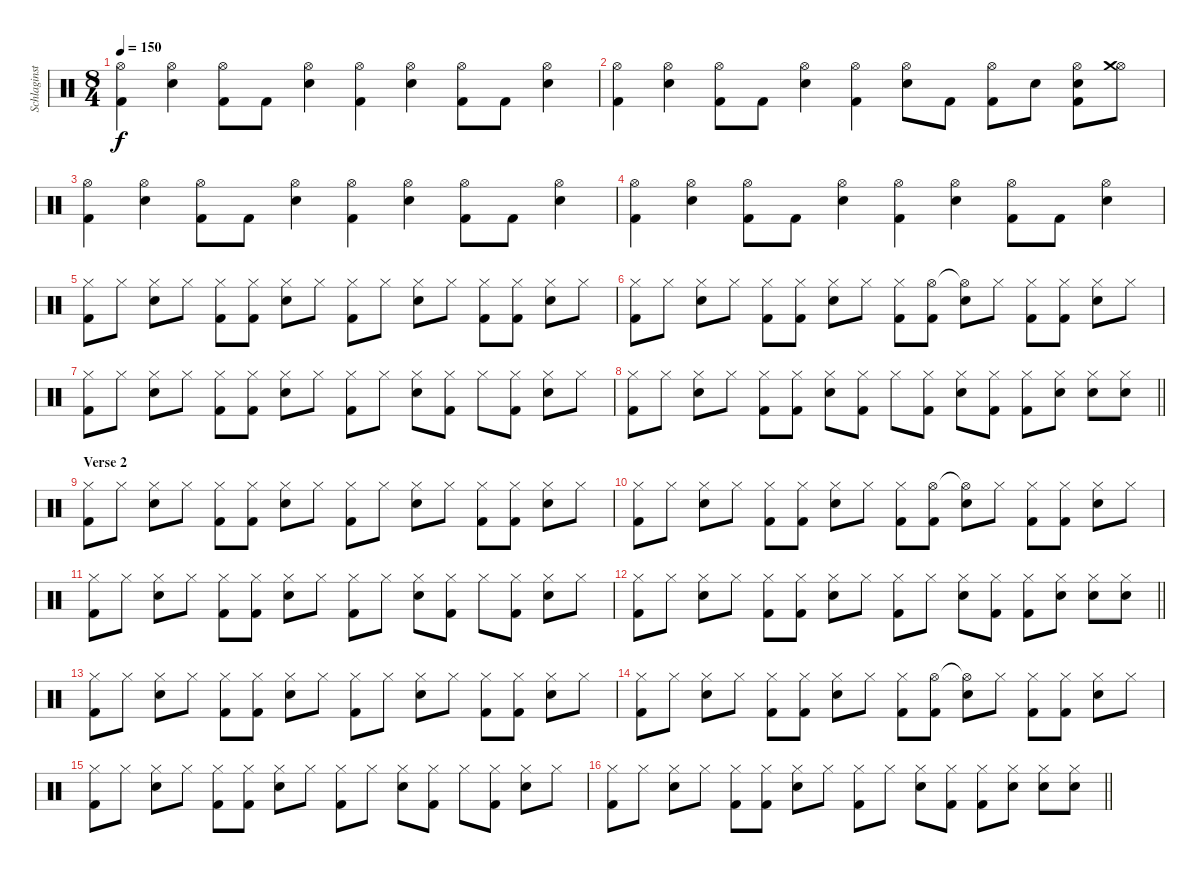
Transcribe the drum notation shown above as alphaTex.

\track ("Schlaginstrumente - Auswahl" "Schlaginst") {instrument percussion}
\staff {score}
\articulation defaults
\ts (8 4)
\tempo 150
\clef neutral
\ks c
("Hi-Hat (open)" "Kick (hit) 2").4{dy f} ("Hi-Hat (open)" "Electric Snare (hit)").4 ("Hi-Hat (open)" "Kick (hit) 2").8 "Kick (hit) 2".8 ("Hi-Hat (open)" "Electric Snare (hit)").4 ("Hi-Hat (open)" "Kick (hit) 2").4 ("Hi-Hat (open)" "Electric Snare (hit)").4 ("Hi-Hat (open)" "Kick (hit) 2").8 "Kick (hit) 2".8 ("Hi-Hat (open)" "Electric Snare (hit)").4 |
("Hi-Hat (open)" "Kick (hit) 2").4 ("Hi-Hat (open)" "Electric Snare (hit)").4 ("Hi-Hat (open)" "Kick (hit) 2").8 "Kick (hit) 2".8 ("Hi-Hat (open)" "Electric Snare (hit)").4 ("Hi-Hat (open)" "Kick (hit) 2").4 ("Hi-Hat (open)" "Electric Snare (hit)").8 "Kick (hit) 2".8 ("Hi-Hat (open)" "Kick (hit) 2").8 "Electric Snare (hit)".8 ("Hi-Hat (open)" "Electric Snare (hit)" "Kick (hit) 2").8 ("Hi-Hat (open)" "Crash medium (hit)").8 |
("Hi-Hat (open)" "Kick (hit) 2").4 ("Hi-Hat (open)" "Electric Snare (hit)").4 ("Hi-Hat (open)" "Kick (hit) 2").8 "Kick (hit) 2".8 ("Hi-Hat (open)" "Electric Snare (hit)").4 ("Hi-Hat (open)" "Kick (hit) 2").4 ("Hi-Hat (open)" "Electric Snare (hit)").4 ("Hi-Hat (open)" "Kick (hit) 2").8 "Kick (hit) 2".8 ("Hi-Hat (open)" "Electric Snare (hit)").4 |
("Hi-Hat (open)" "Kick (hit) 2").4 ("Hi-Hat (open)" "Electric Snare (hit)").4 ("Hi-Hat (open)" "Kick (hit) 2").8 "Kick (hit) 2".8 ("Hi-Hat (open)" "Electric Snare (hit)").4 ("Hi-Hat (open)" "Kick (hit) 2").4 ("Hi-Hat (open)" "Electric Snare (hit)").4 ("Hi-Hat (open)" "Kick (hit) 2").8 "Kick (hit) 2".8 ("Hi-Hat (open)" "Electric Snare (hit)").4 |
("Hi-Hat (closed)" "Kick (hit) 2").8 "Hi-Hat (closed)".8 ("Hi-Hat (closed)" "Electric Snare (hit)").8 "Hi-Hat (closed)".8 ("Hi-Hat (closed)" "Kick (hit) 2").8 ("Hi-Hat (closed)" "Kick (hit) 2").8 ("Hi-Hat (closed)" "Electric Snare (hit)").8 "Hi-Hat (closed)".8 ("Hi-Hat (closed)" "Kick (hit) 2").8 "Hi-Hat (closed)".8 ("Hi-Hat (closed)" "Electric Snare (hit)").8 "Hi-Hat (closed)".8 ("Hi-Hat (closed)" "Kick (hit) 2").8 ("Hi-Hat (closed)" "Kick (hit) 2").8 ("Hi-Hat (closed)" "Electric Snare (hit)").8 "Hi-Hat (closed)".8 |
("Hi-Hat (closed)" "Kick (hit) 2").8 "Hi-Hat (closed)".8 ("Hi-Hat (closed)" "Electric Snare (hit)").8 "Hi-Hat (closed)".8 ("Hi-Hat (closed)" "Kick (hit) 2").8 ("Hi-Hat (closed)" "Kick (hit) 2").8 ("Hi-Hat (closed)" "Electric Snare (hit)").8 "Hi-Hat (closed)".8 ("Hi-Hat (closed)" "Kick (hit) 2").8 ("Hi-Hat (open)" "Kick (hit) 2").8 ("Hi-Hat (open)"{t} "Electric Snare (hit)").8 "Hi-Hat (closed)".8 ("Hi-Hat (closed)" "Kick (hit) 2").8 ("Hi-Hat (closed)" "Kick (hit) 2").8 ("Hi-Hat (closed)" "Electric Snare (hit)").8 "Hi-Hat (closed)".8 |
("Hi-Hat (closed)" "Kick (hit) 2").8 "Hi-Hat (closed)".8 ("Hi-Hat (closed)" "Electric Snare (hit)").8 "Hi-Hat (closed)".8 ("Hi-Hat (closed)" "Kick (hit) 2").8 ("Hi-Hat (closed)" "Kick (hit) 2").8 ("Hi-Hat (closed)" "Electric Snare (hit)").8 "Hi-Hat (closed)".8 ("Hi-Hat (closed)" "Kick (hit) 2").8 "Hi-Hat (closed)".8 ("Hi-Hat (closed)" "Electric Snare (hit)").8 ("Hi-Hat (closed)" "Kick (hit) 2").8 "Hi-Hat (closed)".8 ("Hi-Hat (closed)" "Kick (hit) 2").8 ("Hi-Hat (closed)" "Electric Snare (hit)").8 "Hi-Hat (closed)".8 |
\barLineRight lightlight
("Hi-Hat (closed)" "Kick (hit) 2").8 "Hi-Hat (closed)".8 ("Hi-Hat (closed)" "Electric Snare (hit)").8 "Hi-Hat (closed)".8 ("Hi-Hat (closed)" "Kick (hit) 2").8 ("Hi-Hat (closed)" "Kick (hit) 2").8 ("Hi-Hat (closed)" "Electric Snare (hit)").8 ("Hi-Hat (closed)" "Kick (hit) 2").8 "Hi-Hat (closed)".8 ("Hi-Hat (closed)" "Kick (hit) 2").8 ("Hi-Hat (closed)" "Electric Snare (hit)").8 ("Hi-Hat (closed)" "Kick (hit) 2").8 ("Hi-Hat (closed)" "Kick (hit) 2").8 ("Hi-Hat (closed)" "Electric Snare (hit)").8 ("Hi-Hat (closed)" "Electric Snare (hit)").8 ("Hi-Hat (closed)" "Electric Snare (hit)").8 |
\section ("" "Verse 2")
("Hi-Hat (closed)" "Kick (hit) 2").8 "Hi-Hat (closed)".8 ("Hi-Hat (closed)" "Electric Snare (hit)").8 "Hi-Hat (closed)".8 ("Hi-Hat (closed)" "Kick (hit) 2").8 ("Hi-Hat (closed)" "Kick (hit) 2").8 ("Hi-Hat (closed)" "Electric Snare (hit)").8 "Hi-Hat (closed)".8 ("Hi-Hat (closed)" "Kick (hit) 2").8 "Hi-Hat (closed)".8 ("Hi-Hat (closed)" "Electric Snare (hit)").8 "Hi-Hat (closed)".8 ("Hi-Hat (closed)" "Kick (hit) 2").8 ("Hi-Hat (closed)" "Kick (hit) 2").8 ("Hi-Hat (closed)" "Electric Snare (hit)").8 "Hi-Hat (closed)".8 |
("Hi-Hat (closed)" "Kick (hit) 2").8 "Hi-Hat (closed)".8 ("Hi-Hat (closed)" "Electric Snare (hit)").8 "Hi-Hat (closed)".8 ("Hi-Hat (closed)" "Kick (hit) 2").8 ("Hi-Hat (closed)" "Kick (hit) 2").8 ("Hi-Hat (closed)" "Electric Snare (hit)").8 "Hi-Hat (closed)".8 ("Hi-Hat (closed)" "Kick (hit) 2").8 ("Hi-Hat (open)" "Kick (hit) 2").8 ("Hi-Hat (open)"{t} "Electric Snare (hit)").8 "Hi-Hat (closed)".8 ("Hi-Hat (closed)" "Kick (hit) 2").8 ("Hi-Hat (closed)" "Kick (hit) 2").8 ("Hi-Hat (closed)" "Electric Snare (hit)").8 "Hi-Hat (closed)".8 |
("Hi-Hat (closed)" "Kick (hit) 2").8 "Hi-Hat (closed)".8 ("Hi-Hat (closed)" "Electric Snare (hit)").8 "Hi-Hat (closed)".8 ("Hi-Hat (closed)" "Kick (hit) 2").8 ("Hi-Hat (closed)" "Kick (hit) 2").8 ("Hi-Hat (closed)" "Electric Snare (hit)").8 "Hi-Hat (closed)".8 ("Hi-Hat (closed)" "Kick (hit) 2").8 "Hi-Hat (closed)".8 ("Hi-Hat (closed)" "Electric Snare (hit)").8 ("Hi-Hat (closed)" "Kick (hit) 2").8 "Hi-Hat (closed)".8 ("Hi-Hat (closed)" "Kick (hit) 2").8 ("Hi-Hat (closed)" "Electric Snare (hit)").8 "Hi-Hat (closed)".8 |
\barLineRight lightlight
("Hi-Hat (closed)" "Kick (hit) 2").8 "Hi-Hat (closed)".8 ("Hi-Hat (closed)" "Electric Snare (hit)").8 "Hi-Hat (closed)".8 ("Hi-Hat (closed)" "Kick (hit) 2").8 ("Hi-Hat (closed)" "Kick (hit) 2").8 ("Hi-Hat (closed)" "Electric Snare (hit)").8 "Hi-Hat (closed)".8 ("Hi-Hat (closed)" "Kick (hit) 2").8 "Hi-Hat (closed)".8 ("Hi-Hat (closed)" "Electric Snare (hit)").8 ("Hi-Hat (closed)" "Kick (hit) 2").8 ("Hi-Hat (closed)" "Kick (hit) 2").8 ("Hi-Hat (closed)" "Electric Snare (hit)").8 ("Hi-Hat (closed)" "Electric Snare (hit)").8 ("Hi-Hat (closed)" "Electric Snare (hit)").8 |
("Hi-Hat (closed)" "Kick (hit) 2").8 "Hi-Hat (closed)".8 ("Hi-Hat (closed)" "Electric Snare (hit)").8 "Hi-Hat (closed)".8 ("Hi-Hat (closed)" "Kick (hit) 2").8 ("Hi-Hat (closed)" "Kick (hit) 2").8 ("Hi-Hat (closed)" "Electric Snare (hit)").8 "Hi-Hat (closed)".8 ("Hi-Hat (closed)" "Kick (hit) 2").8 "Hi-Hat (closed)".8 ("Hi-Hat (closed)" "Electric Snare (hit)").8 "Hi-Hat (closed)".8 ("Hi-Hat (closed)" "Kick (hit) 2").8 ("Hi-Hat (closed)" "Kick (hit) 2").8 ("Hi-Hat (closed)" "Electric Snare (hit)").8 "Hi-Hat (closed)".8 |
("Hi-Hat (closed)" "Kick (hit) 2").8 "Hi-Hat (closed)".8 ("Hi-Hat (closed)" "Electric Snare (hit)").8 "Hi-Hat (closed)".8 ("Hi-Hat (closed)" "Kick (hit) 2").8 ("Hi-Hat (closed)" "Kick (hit) 2").8 ("Hi-Hat (closed)" "Electric Snare (hit)").8 "Hi-Hat (closed)".8 ("Hi-Hat (closed)" "Kick (hit) 2").8 ("Hi-Hat (open)" "Kick (hit) 2").8 ("Hi-Hat (open)"{t} "Electric Snare (hit)").8 "Hi-Hat (closed)".8 ("Hi-Hat (closed)" "Kick (hit) 2").8 ("Hi-Hat (closed)" "Kick (hit) 2").8 ("Hi-Hat (closed)" "Electric Snare (hit)").8 "Hi-Hat (closed)".8 |
("Hi-Hat (closed)" "Kick (hit) 2").8 "Hi-Hat (closed)".8 ("Hi-Hat (closed)" "Electric Snare (hit)").8 "Hi-Hat (closed)".8 ("Hi-Hat (closed)" "Kick (hit) 2").8 ("Hi-Hat (closed)" "Kick (hit) 2").8 ("Hi-Hat (closed)" "Electric Snare (hit)").8 "Hi-Hat (closed)".8 ("Hi-Hat (closed)" "Kick (hit) 2").8 "Hi-Hat (closed)".8 ("Hi-Hat (closed)" "Electric Snare (hit)").8 ("Hi-Hat (closed)" "Kick (hit) 2").8 "Hi-Hat (closed)".8 ("Hi-Hat (closed)" "Kick (hit) 2").8 ("Hi-Hat (closed)" "Electric Snare (hit)").8 "Hi-Hat (closed)".8 |
\barLineRight lightlight
("Hi-Hat (closed)" "Kick (hit) 2").8 "Hi-Hat (closed)".8 ("Hi-Hat (closed)" "Electric Snare (hit)").8 "Hi-Hat (closed)".8 ("Hi-Hat (closed)" "Kick (hit) 2").8 ("Hi-Hat (closed)" "Kick (hit) 2").8 ("Hi-Hat (closed)" "Electric Snare (hit)").8 "Hi-Hat (closed)".8 ("Hi-Hat (closed)" "Kick (hit) 2").8 "Hi-Hat (closed)".8 ("Hi-Hat (closed)" "Electric Snare (hit)").8 ("Hi-Hat (closed)" "Kick (hit) 2").8 ("Hi-Hat (closed)" "Kick (hit) 2").8 ("Hi-Hat (closed)" "Electric Snare (hit)").8 ("Hi-Hat (closed)" "Electric Snare (hit)").8 ("Hi-Hat (closed)" "Electric Snare (hit)").8
